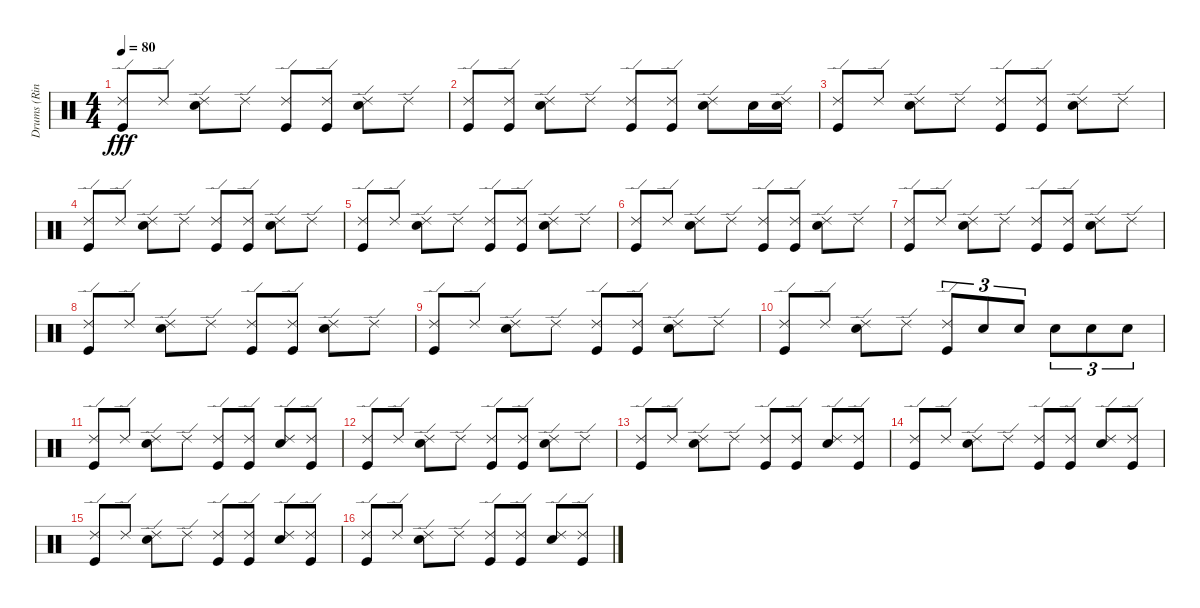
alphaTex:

\track ("Drums (Ringo Starr)" "Drums (Rin") {instrument percussion}
\staff {score}
\articulation defaults
\ts (4 4)
\tempo 80
\clef neutral
\ks c
("Ride (edge) 2" "Kick (hit)").8{dy fff} "Ride (edge) 2".8 ("Ride (edge) 2" "Electric Snare (hit)").8 "Ride (edge) 2".8 ("Ride (edge) 2" "Kick (hit)").8 ("Ride (edge) 2" "Kick (hit)").8 ("Ride (edge) 2" "Electric Snare (hit)").8 "Ride (edge) 2".8 |
("Ride (edge) 2" "Kick (hit)").8 ("Ride (edge) 2" "Kick (hit)").8 ("Ride (edge) 2" "Electric Snare (hit)").8 "Ride (edge) 2".8 ("Ride (edge) 2" "Kick (hit)").8 ("Ride (edge) 2" "Kick (hit)").8 ("Ride (edge) 2" "Electric Snare (hit)").8 "Electric Snare (hit)".16 ("Ride (edge) 2" "Electric Snare (hit)").16 |
("Ride (edge) 2" "Kick (hit)").8 "Ride (edge) 2".8 ("Ride (edge) 2" "Electric Snare (hit)").8 "Ride (edge) 2".8 ("Ride (edge) 2" "Kick (hit)").8 ("Ride (edge) 2" "Kick (hit)").8 ("Ride (edge) 2" "Electric Snare (hit)").8 "Ride (edge) 2".8 |
("Ride (edge) 2" "Kick (hit)").8 "Ride (edge) 2".8 ("Ride (edge) 2" "Electric Snare (hit)").8 "Ride (edge) 2".8 ("Ride (edge) 2" "Kick (hit)").8 ("Ride (edge) 2" "Kick (hit)").8 ("Ride (edge) 2" "Electric Snare (hit)").8 "Ride (edge) 2".8 |
("Ride (edge) 2" "Kick (hit)").8 "Ride (edge) 2".8 ("Ride (edge) 2" "Electric Snare (hit)").8 "Ride (edge) 2".8 ("Ride (edge) 2" "Kick (hit)").8 ("Kick (hit)" "Ride (edge) 2").8 ("Ride (edge) 2" "Electric Snare (hit)").8 "Ride (edge) 2".8 |
("Ride (edge) 2" "Kick (hit)").8 "Ride (edge) 2".8 ("Ride (edge) 2" "Electric Snare (hit)").8 "Ride (edge) 2".8 ("Ride (edge) 2" "Kick (hit)").8 ("Ride (edge) 2" "Kick (hit)").8 ("Ride (edge) 2" "Electric Snare (hit)").8 "Ride (edge) 2".8 |
("Ride (edge) 2" "Kick (hit)").8 "Ride (edge) 2".8 ("Ride (edge) 2" "Electric Snare (hit)").8 "Ride (edge) 2".8 ("Ride (edge) 2" "Kick (hit)").8 ("Ride (edge) 2" "Kick (hit)").8 ("Ride (edge) 2" "Electric Snare (hit)").8 "Ride (edge) 2".8 |
("Ride (edge) 2" "Kick (hit)").8 "Ride (edge) 2".8 ("Ride (edge) 2" "Electric Snare (hit)").8 "Ride (edge) 2".8 ("Ride (edge) 2" "Kick (hit)").8 ("Ride (edge) 2" "Kick (hit)").8 ("Ride (edge) 2" "Electric Snare (hit)").8 "Ride (edge) 2".8 |
("Ride (edge) 2" "Kick (hit)").8 "Ride (edge) 2".8 ("Ride (edge) 2" "Electric Snare (hit)").8 "Ride (edge) 2".8 ("Ride (edge) 2" "Kick (hit)").8 ("Ride (edge) 2" "Kick (hit)").8 ("Ride (edge) 2" "Electric Snare (hit)").8 "Ride (edge) 2".8 |
("Ride (edge) 2" "Kick (hit)").8 "Ride (edge) 2".8 ("Ride (edge) 2" "Electric Snare (hit)").8 "Ride (edge) 2".8 ("Ride (edge) 2" "Kick (hit)").8{tu (3 2)} "Electric Snare (hit)".8{tu (3 2)} "Electric Snare (hit)".8{tu (3 2)} "Electric Snare (hit)".8{tu (3 2)} "Electric Snare (hit)".8{tu (3 2)} "Electric Snare (hit)".8{tu (3 2)} |
("Ride (edge) 2" "Kick (hit)").8 "Ride (edge) 2".8 ("Ride (edge) 2" "Electric Snare (hit)").8 "Ride (edge) 2".8 ("Ride (edge) 2" "Kick (hit)").8 ("Ride (edge) 2" "Kick (hit)").8 ("Ride (edge) 2" "Electric Snare (hit)").8 ("Ride (edge) 2" "Kick (hit)").8 |
("Ride (edge) 2" "Kick (hit)").8 "Ride (edge) 2".8 ("Ride (edge) 2" "Electric Snare (hit)").8 "Ride (edge) 2".8 ("Ride (edge) 2" "Kick (hit)").8 ("Ride (edge) 2" "Kick (hit)").8 ("Ride (edge) 2" "Electric Snare (hit)").8 "Ride (edge) 2".8 |
("Ride (edge) 2" "Kick (hit)").8 "Ride (edge) 2".8 ("Ride (edge) 2" "Electric Snare (hit)").8 "Ride (edge) 2".8 ("Ride (edge) 2" "Kick (hit)").8 ("Ride (edge) 2" "Kick (hit)").8 ("Ride (edge) 2" "Electric Snare (hit)").8 ("Ride (edge) 2" "Kick (hit)").8 |
("Ride (edge) 2" "Kick (hit)").8 "Ride (edge) 2".8 ("Ride (edge) 2" "Electric Snare (hit)").8 "Ride (edge) 2".8 ("Ride (edge) 2" "Kick (hit)").8 ("Ride (edge) 2" "Kick (hit)").8 ("Ride (edge) 2" "Electric Snare (hit)").8 ("Ride (edge) 2" "Kick (hit)").8 |
("Ride (edge) 2" "Kick (hit)").8 "Ride (edge) 2".8 ("Ride (edge) 2" "Electric Snare (hit)").8 "Ride (edge) 2".8 ("Ride (edge) 2" "Kick (hit)").8 ("Ride (edge) 2" "Kick (hit)").8 ("Ride (edge) 2" "Electric Snare (hit)").8 ("Ride (edge) 2" "Kick (hit)").8 |
("Ride (edge) 2" "Kick (hit)").8 "Ride (edge) 2".8 ("Ride (edge) 2" "Electric Snare (hit)").8 "Ride (edge) 2".8 ("Ride (edge) 2" "Kick (hit)").8 ("Ride (edge) 2" "Kick (hit)").8 ("Ride (edge) 2" "Electric Snare (hit)").8 ("Ride (edge) 2" "Kick (hit)").8
